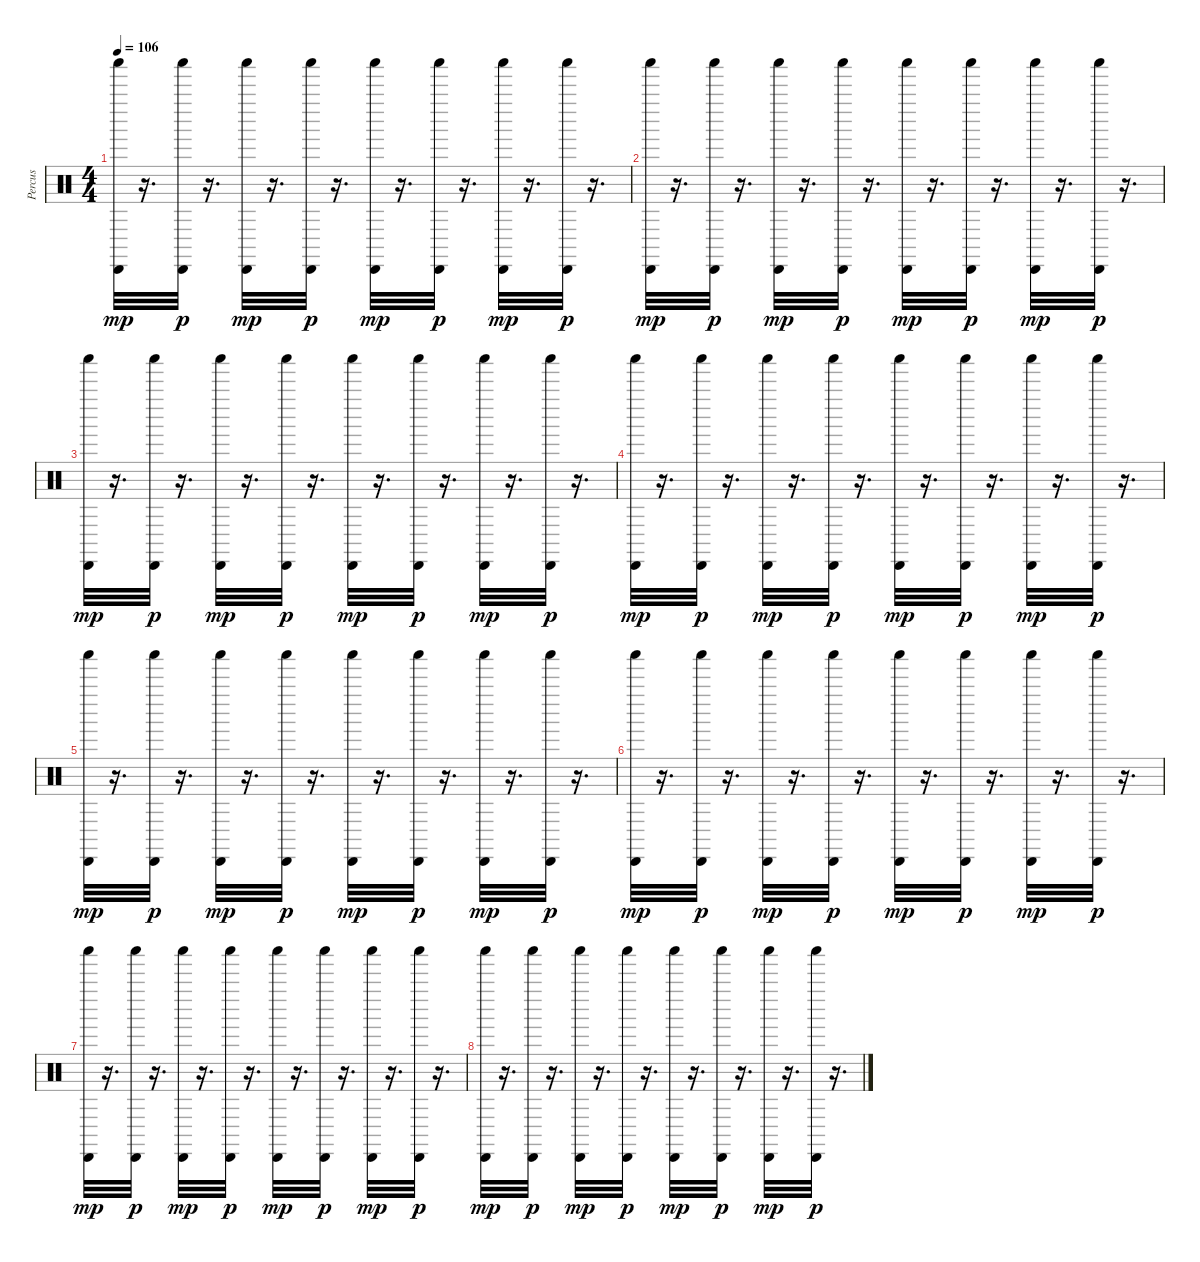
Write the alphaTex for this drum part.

\track ("Percus" "Percus") {instrument percussion}
\staff {score}
\articulation defaults
\ts (4 4)
\tempo 106
\clef neutral
\ks c
("Shaker (hit)" "Cabasa (hit)").32{dy mp} r.16{d} ("Shaker (hit)" "Cabasa (hit)").32{dy p} r.16{d} ("Shaker (hit)" "Cabasa (hit)").32{dy mp} r.16{d} ("Shaker (hit)" "Cabasa (hit)").32{dy p} r.16{d} ("Shaker (hit)" "Cabasa (hit)").32{dy mp} r.16{d} ("Shaker (hit)" "Cabasa (hit)").32{dy p} r.16{d} ("Shaker (hit)" "Cabasa (hit)").32{dy mp} r.16{d} ("Shaker (hit)" "Cabasa (hit)").32{dy p} r.16{d} |
("Shaker (hit)" "Cabasa (hit)").32{dy mp} r.16{d} ("Shaker (hit)" "Cabasa (hit)").32{dy p} r.16{d} ("Shaker (hit)" "Cabasa (hit)").32{dy mp} r.16{d} ("Shaker (hit)" "Cabasa (hit)").32{dy p} r.16{d} ("Shaker (hit)" "Cabasa (hit)").32{dy mp} r.16{d} ("Shaker (hit)" "Cabasa (hit)").32{dy p} r.16{d} ("Shaker (hit)" "Cabasa (hit)").32{dy mp} r.16{d} ("Shaker (hit)" "Cabasa (hit)").32{dy p} r.16{d} |
("Shaker (hit)" "Cabasa (hit)").32{dy mp} r.16{d} ("Shaker (hit)" "Cabasa (hit)").32{dy p} r.16{d} ("Shaker (hit)" "Cabasa (hit)").32{dy mp} r.16{d} ("Shaker (hit)" "Cabasa (hit)").32{dy p} r.16{d} ("Shaker (hit)" "Cabasa (hit)").32{dy mp} r.16{d} ("Shaker (hit)" "Cabasa (hit)").32{dy p} r.16{d} ("Shaker (hit)" "Cabasa (hit)").32{dy mp} r.16{d} ("Shaker (hit)" "Cabasa (hit)").32{dy p} r.16{d} |
("Shaker (hit)" "Cabasa (hit)").32{dy mp} r.16{d} ("Shaker (hit)" "Cabasa (hit)").32{dy p} r.16{d} ("Shaker (hit)" "Cabasa (hit)").32{dy mp} r.16{d} ("Shaker (hit)" "Cabasa (hit)").32{dy p} r.16{d} ("Shaker (hit)" "Cabasa (hit)").32{dy mp} r.16{d} ("Shaker (hit)" "Cabasa (hit)").32{dy p} r.16{d} ("Shaker (hit)" "Cabasa (hit)").32{dy mp} r.16{d} ("Shaker (hit)" "Cabasa (hit)").32{dy p} r.16{d} |
("Shaker (hit)" "Cabasa (hit)").32{dy mp} r.16{d} ("Shaker (hit)" "Cabasa (hit)").32{dy p} r.16{d} ("Shaker (hit)" "Cabasa (hit)").32{dy mp} r.16{d} ("Shaker (hit)" "Cabasa (hit)").32{dy p} r.16{d} ("Shaker (hit)" "Cabasa (hit)").32{dy mp} r.16{d} ("Shaker (hit)" "Cabasa (hit)").32{dy p} r.16{d} ("Shaker (hit)" "Cabasa (hit)").32{dy mp} r.16{d} ("Shaker (hit)" "Cabasa (hit)").32{dy p} r.16{d} |
("Shaker (hit)" "Cabasa (hit)").32{dy mp} r.16{d} ("Shaker (hit)" "Cabasa (hit)").32{dy p} r.16{d} ("Shaker (hit)" "Cabasa (hit)").32{dy mp} r.16{d} ("Shaker (hit)" "Cabasa (hit)").32{dy p} r.16{d} ("Shaker (hit)" "Cabasa (hit)").32{dy mp} r.16{d} ("Shaker (hit)" "Cabasa (hit)").32{dy p} r.16{d} ("Shaker (hit)" "Cabasa (hit)").32{dy mp} r.16{d} ("Shaker (hit)" "Cabasa (hit)").32{dy p} r.16{d} |
("Shaker (hit)" "Cabasa (hit)").32{dy mp} r.16{d} ("Shaker (hit)" "Cabasa (hit)").32{dy p} r.16{d} ("Shaker (hit)" "Cabasa (hit)").32{dy mp} r.16{d} ("Shaker (hit)" "Cabasa (hit)").32{dy p} r.16{d} ("Shaker (hit)" "Cabasa (hit)").32{dy mp} r.16{d} ("Shaker (hit)" "Cabasa (hit)").32{dy p} r.16{d} ("Shaker (hit)" "Cabasa (hit)").32{dy mp} r.16{d} ("Shaker (hit)" "Cabasa (hit)").32{dy p} r.16{d} |
("Shaker (hit)" "Cabasa (hit)").32{dy mp} r.16{d} ("Shaker (hit)" "Cabasa (hit)").32{dy p} r.16{d} ("Shaker (hit)" "Cabasa (hit)").32{dy mp} r.16{d} ("Shaker (hit)" "Cabasa (hit)").32{dy p} r.16{d} ("Shaker (hit)" "Cabasa (hit)").32{dy mp} r.16{d} ("Shaker (hit)" "Cabasa (hit)").32{dy p} r.16{d} ("Shaker (hit)" "Cabasa (hit)").32{dy mp} r.16{d} ("Shaker (hit)" "Cabasa (hit)").32{dy p} r.16{d}
